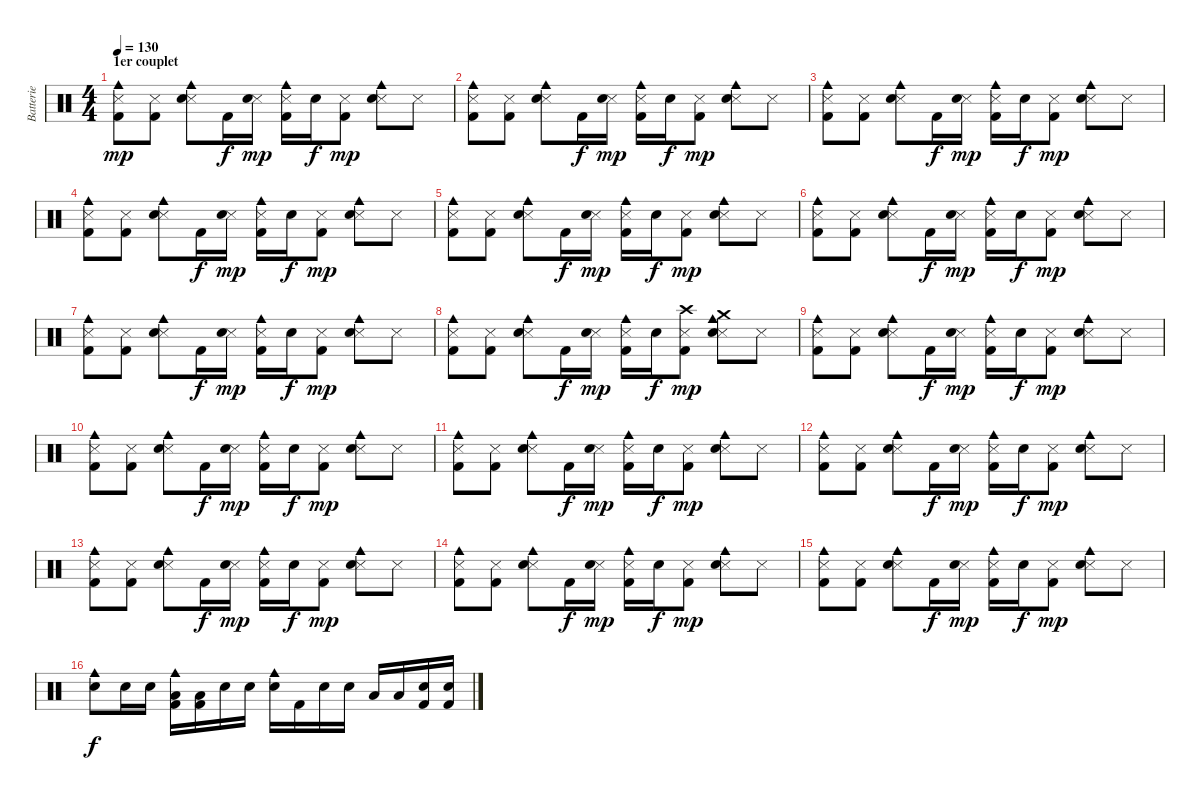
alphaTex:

\track ("Batterie" "Batterie") {instrument percussion}
\staff {score}
\articulation defaults
\ts (4 4)
\section ("" "1er couplet")
\tempo 130
\clef neutral
\ks c
("Cowbell medium (hit)" "Snare (side stick) 3" "Kick (hit) 2").8{dy mp} ("Snare (side stick) 3" "Kick (hit) 2").8 ("Cowbell medium (hit)" "Snare (side stick) 3" "Snare (hit) 2").8 "Kick (hit) 2".16{dy f} ("Snare (side stick) 3" "Snare (hit) 2").16{dy mp} ("Cowbell medium (hit)" "Snare (side stick) 3" "Kick (hit) 2").16 "Snare (hit) 2".16{dy f} ("Snare (side stick) 3" "Kick (hit) 2").8{dy mp} ("Cowbell medium (hit)" "Snare (side stick) 3" "Snare (hit) 2").8 "Snare (side stick) 3".8 |
("Cowbell medium (hit)" "Snare (side stick) 3" "Kick (hit) 2").8 ("Snare (side stick) 3" "Kick (hit) 2").8 ("Cowbell medium (hit)" "Snare (side stick) 3" "Snare (hit) 2").8 "Kick (hit) 2".16{dy f} ("Snare (side stick) 3" "Snare (hit) 2").16{dy mp} ("Cowbell medium (hit)" "Snare (side stick) 3" "Kick (hit) 2").16 "Snare (hit) 2".16{dy f} ("Snare (side stick) 3" "Kick (hit) 2").8{dy mp} ("Cowbell medium (hit)" "Snare (side stick) 3" "Snare (hit) 2").8 "Snare (side stick) 3".8 |
("Cowbell medium (hit)" "Snare (side stick) 3" "Kick (hit) 2").8 ("Snare (side stick) 3" "Kick (hit) 2").8 ("Cowbell medium (hit)" "Snare (side stick) 3" "Snare (hit) 2").8 "Kick (hit) 2".16{dy f} ("Snare (side stick) 3" "Snare (hit) 2").16{dy mp} ("Cowbell medium (hit)" "Snare (side stick) 3" "Kick (hit) 2").16 "Snare (hit) 2".16{dy f} ("Snare (side stick) 3" "Kick (hit) 2").8{dy mp} ("Cowbell medium (hit)" "Snare (side stick) 3" "Snare (hit) 2").8 "Snare (side stick) 3".8 |
("Cowbell medium (hit)" "Snare (side stick) 3" "Kick (hit) 2").8 ("Snare (side stick) 3" "Kick (hit) 2").8 ("Cowbell medium (hit)" "Snare (side stick) 3" "Snare (hit) 2").8 "Kick (hit) 2".16{dy f} ("Snare (side stick) 3" "Snare (hit) 2").16{dy mp} ("Cowbell medium (hit)" "Snare (side stick) 3" "Kick (hit) 2").16 "Snare (hit) 2".16{dy f} ("Snare (side stick) 3" "Kick (hit) 2").8{dy mp} ("Cowbell medium (hit)" "Snare (side stick) 3" "Snare (hit) 2").8 "Snare (side stick) 3".8 |
("Cowbell medium (hit)" "Snare (side stick) 3" "Kick (hit) 2").8 ("Snare (side stick) 3" "Kick (hit) 2").8 ("Cowbell medium (hit)" "Snare (side stick) 3" "Snare (hit) 2").8 "Kick (hit) 2".16{dy f} ("Snare (side stick) 3" "Snare (hit) 2").16{dy mp} ("Cowbell medium (hit)" "Snare (side stick) 3" "Kick (hit) 2").16 "Snare (hit) 2".16{dy f} ("Snare (side stick) 3" "Kick (hit) 2").8{dy mp} ("Cowbell medium (hit)" "Snare (side stick) 3" "Snare (hit) 2").8 "Snare (side stick) 3".8 |
("Cowbell medium (hit)" "Snare (side stick) 3" "Kick (hit) 2").8 ("Snare (side stick) 3" "Kick (hit) 2").8 ("Cowbell medium (hit)" "Snare (side stick) 3" "Snare (hit) 2").8 "Kick (hit) 2".16{dy f} ("Snare (side stick) 3" "Snare (hit) 2").16{dy mp} ("Cowbell medium (hit)" "Snare (side stick) 3" "Kick (hit) 2").16 "Snare (hit) 2".16{dy f} ("Snare (side stick) 3" "Kick (hit) 2").8{dy mp} ("Cowbell medium (hit)" "Snare (side stick) 3" "Snare (hit) 2").8 "Snare (side stick) 3".8 |
("Cowbell medium (hit)" "Snare (side stick) 3" "Kick (hit) 2").8 ("Snare (side stick) 3" "Kick (hit) 2").8 ("Cowbell medium (hit)" "Snare (side stick) 3" "Snare (hit) 2").8 "Kick (hit) 2".16{dy f} ("Snare (side stick) 3" "Snare (hit) 2").16{dy mp} ("Cowbell medium (hit)" "Snare (side stick) 3" "Kick (hit) 2").16 "Snare (hit) 2".16{dy f} ("Snare (side stick) 3" "Kick (hit) 2").8{dy mp} ("Cowbell medium (hit)" "Snare (side stick) 3" "Snare (hit) 2").8 "Snare (side stick) 3".8 |
("Cowbell medium (hit)" "Snare (side stick) 3" "Kick (hit) 2").8 ("Snare (side stick) 3" "Kick (hit) 2").8 ("Cowbell medium (hit)" "Snare (side stick) 3" "Snare (hit) 2").8 "Kick (hit) 2".16{dy f} ("Snare (side stick) 3" "Snare (hit) 2").16{dy mp} ("Cowbell medium (hit)" "Snare (side stick) 3" "Kick (hit) 2").16 "Snare (hit) 2".16{dy f} ("Crash high (hit)" "Snare (side stick) 3" "Kick (hit) 2").8{dy mp} ("Cowbell medium (hit)" "Snare (side stick) 3" "Crash medium (hit)" "Snare (hit) 2").8 "Snare (side stick) 3".8 |
("Cowbell medium (hit)" "Snare (side stick) 3" "Kick (hit) 2").8 ("Snare (side stick) 3" "Kick (hit) 2").8 ("Cowbell medium (hit)" "Snare (side stick) 3" "Snare (hit) 2").8 "Kick (hit) 2".16{dy f} ("Snare (side stick) 3" "Snare (hit) 2").16{dy mp} ("Cowbell medium (hit)" "Snare (side stick) 3" "Kick (hit) 2").16 "Snare (hit) 2".16{dy f} ("Snare (side stick) 3" "Kick (hit) 2").8{dy mp} ("Cowbell medium (hit)" "Snare (side stick) 3" "Snare (hit) 2").8 "Snare (side stick) 3".8 |
("Cowbell medium (hit)" "Snare (side stick) 3" "Kick (hit) 2").8 ("Snare (side stick) 3" "Kick (hit) 2").8 ("Cowbell medium (hit)" "Snare (side stick) 3" "Snare (hit) 2").8 "Kick (hit) 2".16{dy f} ("Snare (side stick) 3" "Snare (hit) 2").16{dy mp} ("Cowbell medium (hit)" "Snare (side stick) 3" "Kick (hit) 2").16 "Snare (hit) 2".16{dy f} ("Snare (side stick) 3" "Kick (hit) 2").8{dy mp} ("Cowbell medium (hit)" "Snare (side stick) 3" "Snare (hit) 2").8 "Snare (side stick) 3".8 |
("Cowbell medium (hit)" "Snare (side stick) 3" "Kick (hit) 2").8 ("Snare (side stick) 3" "Kick (hit) 2").8 ("Cowbell medium (hit)" "Snare (side stick) 3" "Snare (hit) 2").8 "Kick (hit) 2".16{dy f} ("Snare (side stick) 3" "Snare (hit) 2").16{dy mp} ("Cowbell medium (hit)" "Snare (side stick) 3" "Kick (hit) 2").16 "Snare (hit) 2".16{dy f} ("Snare (side stick) 3" "Kick (hit) 2").8{dy mp} ("Cowbell medium (hit)" "Snare (side stick) 3" "Snare (hit) 2").8 "Snare (side stick) 3".8 |
("Cowbell medium (hit)" "Snare (side stick) 3" "Kick (hit) 2").8 ("Snare (side stick) 3" "Kick (hit) 2").8 ("Cowbell medium (hit)" "Snare (side stick) 3" "Snare (hit) 2").8 "Kick (hit) 2".16{dy f} ("Snare (side stick) 3" "Snare (hit) 2").16{dy mp} ("Cowbell medium (hit)" "Snare (side stick) 3" "Kick (hit) 2").16 "Snare (hit) 2".16{dy f} ("Snare (side stick) 3" "Kick (hit) 2").8{dy mp} ("Cowbell medium (hit)" "Snare (side stick) 3" "Snare (hit) 2").8 "Snare (side stick) 3".8 |
("Cowbell medium (hit)" "Snare (side stick) 3" "Kick (hit) 2").8 ("Snare (side stick) 3" "Kick (hit) 2").8 ("Cowbell medium (hit)" "Snare (side stick) 3" "Snare (hit) 2").8 "Kick (hit) 2".16{dy f} ("Snare (side stick) 3" "Snare (hit) 2").16{dy mp} ("Cowbell medium (hit)" "Snare (side stick) 3" "Kick (hit) 2").16 "Snare (hit) 2".16{dy f} ("Snare (side stick) 3" "Kick (hit) 2").8{dy mp} ("Cowbell medium (hit)" "Snare (side stick) 3" "Snare (hit) 2").8 "Snare (side stick) 3".8 |
("Cowbell medium (hit)" "Snare (side stick) 3" "Kick (hit) 2").8 ("Snare (side stick) 3" "Kick (hit) 2").8 ("Cowbell medium (hit)" "Snare (side stick) 3" "Snare (hit) 2").8 "Kick (hit) 2".16{dy f} ("Snare (side stick) 3" "Snare (hit) 2").16{dy mp} ("Cowbell medium (hit)" "Snare (side stick) 3" "Kick (hit) 2").16 "Snare (hit) 2".16{dy f} ("Snare (side stick) 3" "Kick (hit) 2").8{dy mp} ("Cowbell medium (hit)" "Snare (side stick) 3" "Snare (hit) 2").8 "Snare (side stick) 3".8 |
("Cowbell medium (hit)" "Snare (side stick) 3" "Kick (hit) 2").8 ("Snare (side stick) 3" "Kick (hit) 2").8 ("Cowbell medium (hit)" "Snare (side stick) 3" "Snare (hit) 2").8 "Kick (hit) 2".16{dy f} ("Snare (side stick) 3" "Snare (hit) 2").16{dy mp} ("Cowbell medium (hit)" "Snare (side stick) 3" "Kick (hit) 2").16 "Snare (hit) 2".16{dy f} ("Snare (side stick) 3" "Kick (hit) 2").8{dy mp} ("Cowbell medium (hit)" "Snare (side stick) 3" "Snare (hit) 2").8 "Snare (side stick) 3".8 |
("Cowbell medium (hit)" "Snare (hit) 2").8{dy f} "Snare (hit) 2".16 "Snare (hit) 2".16 ("Cowbell medium (hit)" "Low Tom (hit)" "Kick (hit) 2").16 ("Low Tom (hit)" "Kick (hit) 2").16 "Snare (hit) 2".16 "Snare (hit) 2".16 ("Cowbell medium (hit)" "Snare (hit) 2").16 "Kick (hit) 2".16 "Snare (hit) 2".16 "Snare (hit) 2".16 "Low Tom (hit)".16 "Low Tom (hit)".16 ("Snare (hit) 2" "Kick (hit) 2").16 ("Snare (hit) 2" "Kick (hit) 2").16
